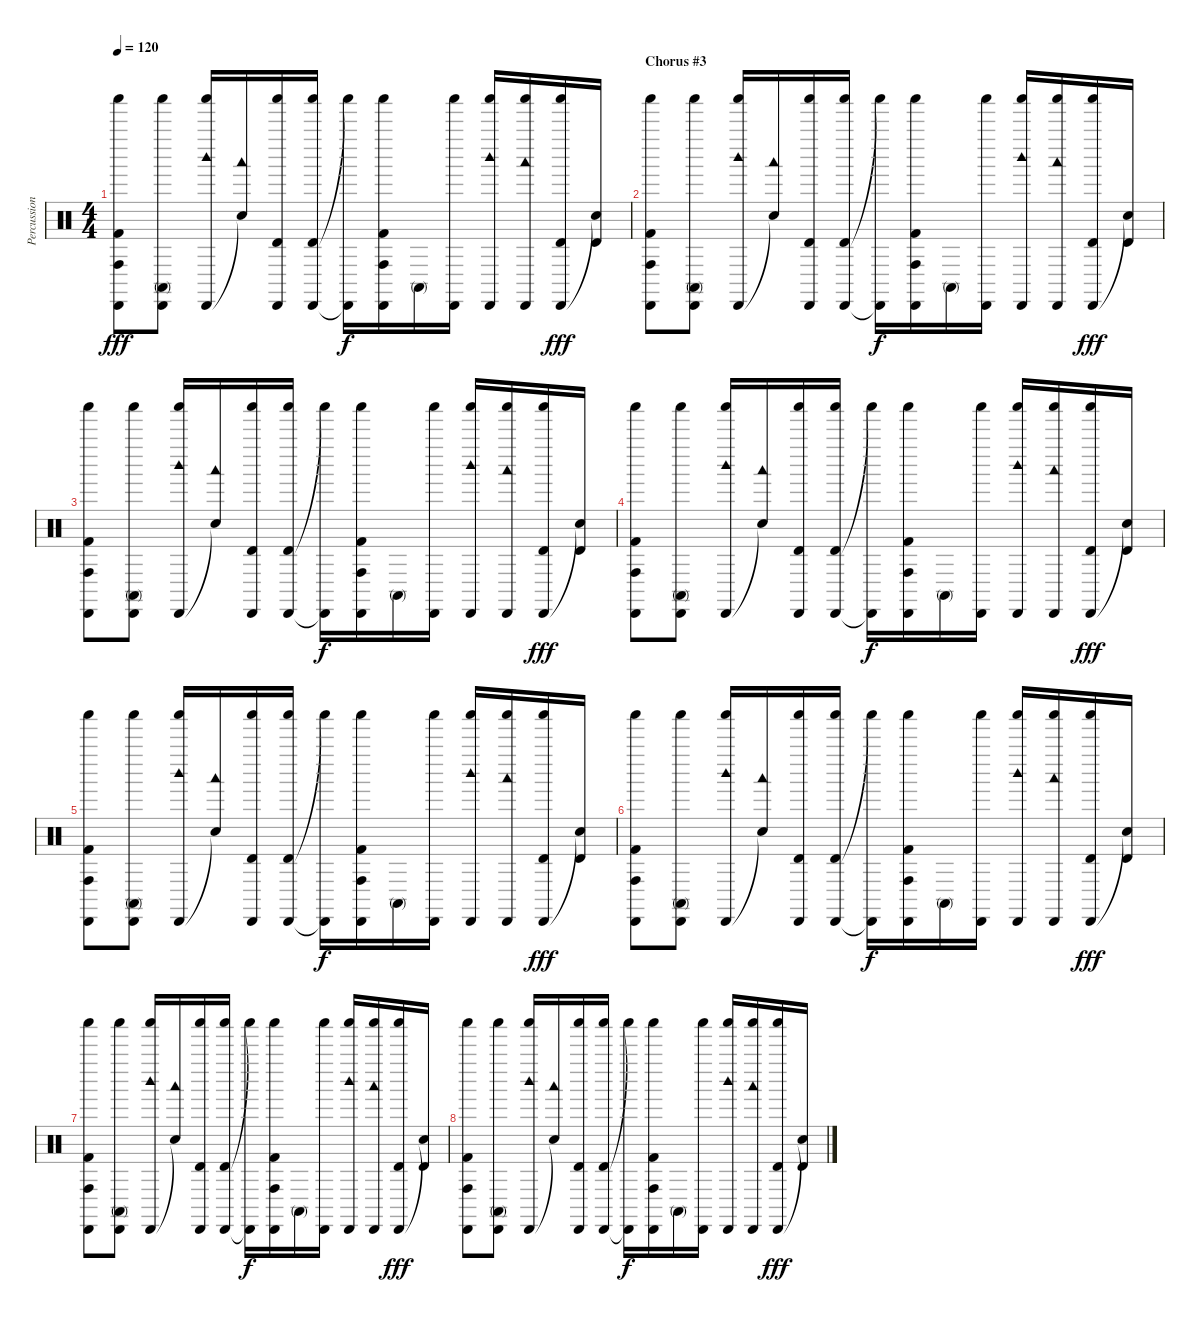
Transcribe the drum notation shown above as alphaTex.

\track ("Percussion" "Percussion") {instrument percussion}
\staff {score}
\articulation defaults
\ts (4 4)
\tempo 120
\clef neutral
\ks c
("Cabasa (hit)" "Conga high (hit)" "Kick (hit) 2" "Shaker (hit)").8{dy fff} ("Cabasa (hit)" "Conga high (mute)" "Shaker (hit)").8 ("Cabasa (hit)" "Woodblock high (hit)" "Shaker (hit)").16 ("Snare (hit)"{t} "Woodblock low (hit)").16 ("Cabasa (hit)" "Timbale high (hit)" "Shaker (hit)").16 ("Cabasa (hit)" "Timbale high (hit)" "Shaker (hit)").16 ("Cabasa (hit)"{t} "Shaker (hit)"{t}).16{dy f} ("Cabasa (hit)" "Conga high (hit)" "Kick (hit) 2" "Shaker (hit)").16 "Conga high (mute)".16 ("Cabasa (hit)" "Shaker (hit)").16 ("Cabasa (hit)" "Woodblock high (hit)" "Shaker (hit)").16 ("Cabasa (hit)" "Woodblock low (hit)" "Shaker (hit)").16 ("Cabasa (hit)" "Timbale high (hit)" "Shaker (hit)").16{dy fff} ("Snare (hit)"{t} "Timbale high (hit)").16 |
\section ("" "Chorus #3")
("Cabasa (hit)" "Conga high (hit)" "Kick (hit) 2" "Shaker (hit)").8 ("Cabasa (hit)" "Conga high (mute)" "Shaker (hit)").8 ("Cabasa (hit)" "Woodblock high (hit)" "Shaker (hit)").16 ("Snare (hit)"{t} "Woodblock low (hit)").16 ("Cabasa (hit)" "Timbale high (hit)" "Shaker (hit)").16 ("Cabasa (hit)" "Timbale high (hit)" "Shaker (hit)").16 ("Cabasa (hit)"{t} "Shaker (hit)"{t}).16{dy f} ("Cabasa (hit)" "Conga high (hit)" "Kick (hit) 2" "Shaker (hit)").16 "Conga high (mute)".16 ("Cabasa (hit)" "Shaker (hit)").16 ("Cabasa (hit)" "Woodblock high (hit)" "Shaker (hit)").16 ("Cabasa (hit)" "Woodblock low (hit)" "Shaker (hit)").16 ("Cabasa (hit)" "Timbale high (hit)" "Shaker (hit)").16{dy fff} ("Snare (hit)"{t} "Timbale high (hit)").16 |
("Cabasa (hit)" "Conga high (hit)" "Kick (hit) 2" "Shaker (hit)").8 ("Cabasa (hit)" "Conga high (mute)" "Shaker (hit)").8 ("Cabasa (hit)" "Woodblock high (hit)" "Shaker (hit)").16 ("Snare (hit)"{t} "Woodblock low (hit)").16 ("Cabasa (hit)" "Timbale high (hit)" "Shaker (hit)").16 ("Cabasa (hit)" "Timbale high (hit)" "Shaker (hit)").16 ("Cabasa (hit)"{t} "Shaker (hit)"{t}).16{dy f} ("Cabasa (hit)" "Conga high (hit)" "Kick (hit) 2" "Shaker (hit)").16 "Conga high (mute)".16 ("Cabasa (hit)" "Shaker (hit)").16 ("Cabasa (hit)" "Woodblock high (hit)" "Shaker (hit)").16 ("Cabasa (hit)" "Woodblock low (hit)" "Shaker (hit)").16 ("Cabasa (hit)" "Timbale high (hit)" "Shaker (hit)").16{dy fff} ("Snare (hit)"{t} "Timbale high (hit)").16 |
("Cabasa (hit)" "Conga high (hit)" "Kick (hit) 2" "Shaker (hit)").8 ("Cabasa (hit)" "Conga high (mute)" "Shaker (hit)").8 ("Cabasa (hit)" "Woodblock high (hit)" "Shaker (hit)").16 ("Snare (hit)"{t} "Woodblock low (hit)").16 ("Cabasa (hit)" "Timbale high (hit)" "Shaker (hit)").16 ("Cabasa (hit)" "Timbale high (hit)" "Shaker (hit)").16 ("Cabasa (hit)"{t} "Shaker (hit)"{t}).16{dy f} ("Cabasa (hit)" "Conga high (hit)" "Kick (hit) 2" "Shaker (hit)").16 "Conga high (mute)".16 ("Cabasa (hit)" "Shaker (hit)").16 ("Cabasa (hit)" "Woodblock high (hit)" "Shaker (hit)").16 ("Cabasa (hit)" "Woodblock low (hit)" "Shaker (hit)").16 ("Cabasa (hit)" "Timbale high (hit)" "Shaker (hit)").16{dy fff} ("Snare (hit)"{t} "Timbale high (hit)").16 |
("Cabasa (hit)" "Conga high (hit)" "Kick (hit) 2" "Shaker (hit)").8 ("Cabasa (hit)" "Conga high (mute)" "Shaker (hit)").8 ("Cabasa (hit)" "Woodblock high (hit)" "Shaker (hit)").16 ("Snare (hit)"{t} "Woodblock low (hit)").16 ("Cabasa (hit)" "Timbale high (hit)" "Shaker (hit)").16 ("Cabasa (hit)" "Timbale high (hit)" "Shaker (hit)").16 ("Cabasa (hit)"{t} "Shaker (hit)"{t}).16{dy f} ("Cabasa (hit)" "Conga high (hit)" "Kick (hit) 2" "Shaker (hit)").16 "Conga high (mute)".16 ("Cabasa (hit)" "Shaker (hit)").16 ("Cabasa (hit)" "Woodblock high (hit)" "Shaker (hit)").16 ("Cabasa (hit)" "Woodblock low (hit)" "Shaker (hit)").16 ("Cabasa (hit)" "Timbale high (hit)" "Shaker (hit)").16{dy fff} ("Snare (hit)"{t} "Timbale high (hit)").16 |
("Cabasa (hit)" "Conga high (hit)" "Kick (hit) 2" "Shaker (hit)").8 ("Cabasa (hit)" "Conga high (mute)" "Shaker (hit)").8 ("Cabasa (hit)" "Woodblock high (hit)" "Shaker (hit)").16 ("Snare (hit)"{t} "Woodblock low (hit)").16 ("Cabasa (hit)" "Timbale high (hit)" "Shaker (hit)").16 ("Cabasa (hit)" "Timbale high (hit)" "Shaker (hit)").16 ("Cabasa (hit)"{t} "Shaker (hit)"{t}).16{dy f} ("Cabasa (hit)" "Conga high (hit)" "Kick (hit) 2" "Shaker (hit)").16 "Conga high (mute)".16 ("Cabasa (hit)" "Shaker (hit)").16 ("Cabasa (hit)" "Woodblock high (hit)" "Shaker (hit)").16 ("Cabasa (hit)" "Woodblock low (hit)" "Shaker (hit)").16 ("Cabasa (hit)" "Timbale high (hit)" "Shaker (hit)").16{dy fff} ("Snare (hit)"{t} "Timbale high (hit)").16 |
("Cabasa (hit)" "Conga high (hit)" "Kick (hit) 2" "Shaker (hit)").8 ("Cabasa (hit)" "Conga high (mute)" "Shaker (hit)").8 ("Cabasa (hit)" "Woodblock high (hit)" "Shaker (hit)").16 ("Snare (hit)"{t} "Woodblock low (hit)").16 ("Cabasa (hit)" "Timbale high (hit)" "Shaker (hit)").16 ("Cabasa (hit)" "Timbale high (hit)" "Shaker (hit)").16 ("Cabasa (hit)"{t} "Shaker (hit)"{t}).16{dy f} ("Cabasa (hit)" "Conga high (hit)" "Kick (hit) 2" "Shaker (hit)").16 "Conga high (mute)".16 ("Cabasa (hit)" "Shaker (hit)").16 ("Cabasa (hit)" "Woodblock high (hit)" "Shaker (hit)").16 ("Cabasa (hit)" "Woodblock low (hit)" "Shaker (hit)").16 ("Cabasa (hit)" "Timbale high (hit)" "Shaker (hit)").16{dy fff} ("Snare (hit)"{t} "Timbale high (hit)").16 |
("Cabasa (hit)" "Conga high (hit)" "Kick (hit) 2" "Shaker (hit)").8 ("Cabasa (hit)" "Conga high (mute)" "Shaker (hit)").8 ("Cabasa (hit)" "Woodblock high (hit)" "Shaker (hit)").16 ("Snare (hit)"{t} "Woodblock low (hit)").16 ("Cabasa (hit)" "Timbale high (hit)" "Shaker (hit)").16 ("Cabasa (hit)" "Timbale high (hit)" "Shaker (hit)").16 ("Cabasa (hit)"{t} "Shaker (hit)"{t}).16{dy f} ("Cabasa (hit)" "Conga high (hit)" "Kick (hit) 2" "Shaker (hit)").16 "Conga high (mute)".16 ("Cabasa (hit)" "Shaker (hit)").16 ("Cabasa (hit)" "Woodblock high (hit)" "Shaker (hit)").16 ("Cabasa (hit)" "Woodblock low (hit)" "Shaker (hit)").16 ("Cabasa (hit)" "Timbale high (hit)" "Shaker (hit)").16{dy fff} ("Snare (hit)"{t} "Timbale high (hit)").16
